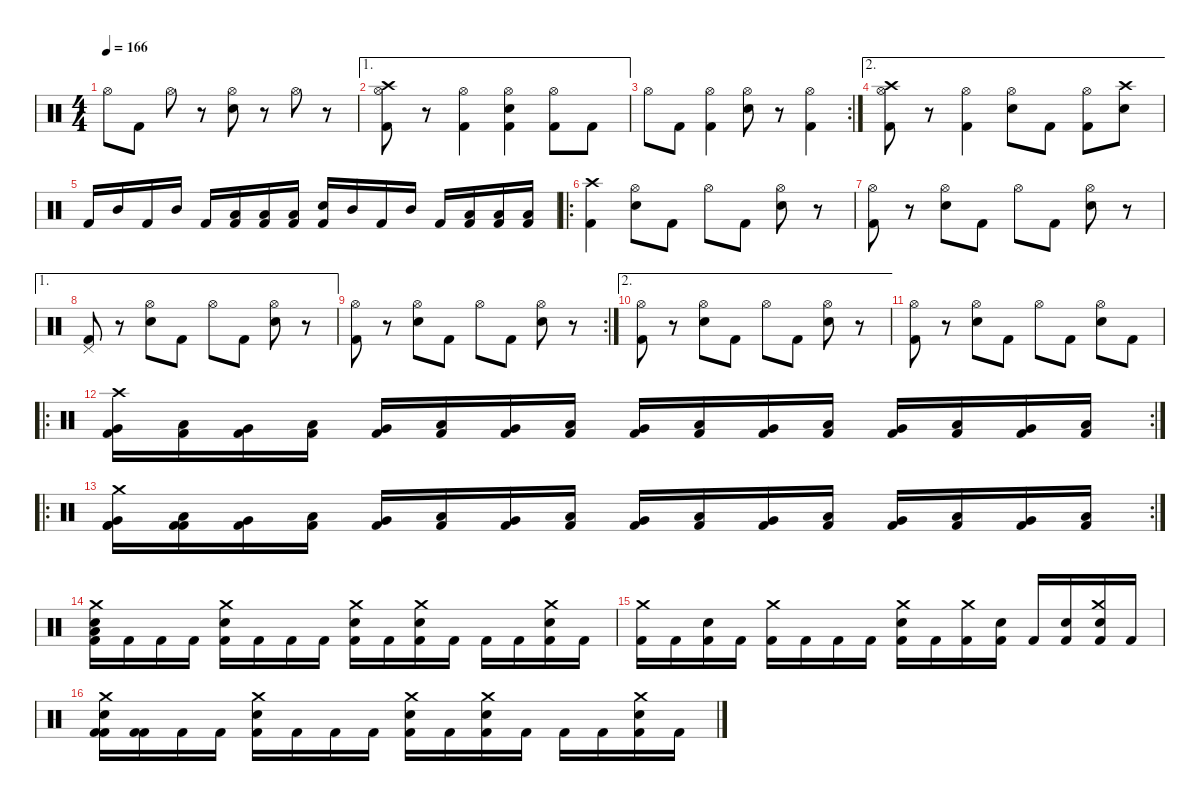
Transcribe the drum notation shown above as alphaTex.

\defaultSystemsLayout 4
\hideDynamics
\bracketExtendMode nobrackets
\singleTrackTrackNamePolicy hidden
\multiTrackTrackNamePolicy hidden
\firstSystemTrackNameMode fullname
\otherSystemsTrackNameOrientation horizontal
\track ("Drums" "drm.") {instrument percussion}
\staff {score}
\articulation defaults
\ts (4 4)
\tempo 166
\clef neutral
\ks c "Hi-Hat (open)".8{dy f beam Down} "Kick (hit) 2".8{beam Down} "Hi-Hat (open)".8{beam Down}
r.8{beam Down} ("Snare (hit) 2" "Hi-Hat (open)").8{beam Down} r.8{beam Down} "Hi-Hat (open)".8{beam Down} r.8{beam Down} |
\ae 1
("Hi-Hat (open)" "Kick (hit) 2" "Crash high (hit)").8{beam Down} r.8{beam Down} ("Hi-Hat (open)" "Kick (hit) 2").4{beam Down} ("Snare (hit) 2" "Hi-Hat (open)" "Kick (hit) 2").4{beam Down} ("Hi-Hat (open)" "Kick (hit) 2").8{beam Down} "Kick (hit) 2".8{beam Down} |
\rc 2 "Hi-Hat (open)".8{beam Down} "Kick (hit) 2".8{beam Down}
("Hi-Hat (open)" "Kick (hit) 2").4{beam Down} ("Snare (hit) 2" "Hi-Hat (open)").8{beam Down} r.8{beam Down} ("Hi-Hat (open)" "Kick (hit) 2").4{beam Down} |
\ae 2
("Hi-Hat (open)" "Kick (hit) 2" "Crash high (hit)").8{beam Down} r.8{beam Down} ("Hi-Hat (open)" "Kick (hit) 2").4{beam Down} ("Snare (hit) 2" "Hi-Hat (open)").8{beam Down} "Kick (hit) 2".8{beam Down} ("Hi-Hat (open)" "Kick (hit) 2").8{beam Down} ("Snare (hit) 2" "Crash high (hit)").8{beam Down} |
"Kick (hit) 2".16{beam Up} "Mid Tom (hit)".16{beam Up} "Kick (hit) 2".16{beam Up} "Mid Tom (hit)".16{beam Up} "Kick (hit) 2".16{beam Up} ("Kick (hit) 2" "Low Tom (hit)").16{beam Up} ("Kick (hit) 2" "Low Tom (hit)").16{beam Up} ("Kick (hit) 2" "Low Tom (hit)").16{beam Up} ("Snare (hit) 2" "Kick (hit) 2").16{beam Up} "Mid Tom (hit)".16{beam Up} "Kick (hit) 2".16{beam Up} "Mid Tom (hit)".16{beam Up} "Kick (hit) 2".16{beam Up} ("Kick (hit) 2" "Low Tom (hit)").16{beam Up} ("Kick (hit) 2" "Low Tom (hit)").16{beam Up} ("Kick (hit) 2" "Low Tom (hit)").16{beam Up} |
\ro
("Kick (hit) 2" "Crash high (hit)").4{beam Down} ("Snare (hit) 2" "Hi-Hat (open)").8{beam Down} "Kick (hit) 2".8{beam Down} "Hi-Hat (open)".8{beam Down} "Kick (hit) 2".8{beam Down} ("Snare (hit) 2" "Hi-Hat (open)").8{beam Down} r.8{beam Down} |
("Hi-Hat (open)" "Kick (hit) 2").8{beam Down} r.8{beam Down} ("Snare (hit) 2" "Hi-Hat (open)").8{beam Down} "Kick (hit) 2".8{beam Down} "Hi-Hat (open)".8{beam Down} "Kick (hit) 2".8{beam Down} ("Snare (hit) 2" "Hi-Hat (open)").8{beam Down} r.8{beam Down} |
\ae 1
("Pedal Hi-Hat (hit)" "Kick (hit) 2").8{beam Up} r.8{beam Up} ("Snare (hit) 2" "Hi-Hat (open)").8{beam Down} "Kick (hit) 2".8{beam Down} "Hi-Hat (open)".8{beam Down} "Kick (hit) 2".8{beam Down} ("Snare (hit) 2" "Hi-Hat (open)").8{beam Down} r.8{beam Down} |
\rc 2
("Hi-Hat (open)" "Kick (hit) 2").8{beam Down} r.8{beam Down} ("Snare (hit) 2" "Hi-Hat (open)").8{beam Down} "Kick (hit) 2".8{beam Down} "Hi-Hat (open)".8{beam Down} "Kick (hit) 2".8{beam Down} ("Snare (hit) 2" "Hi-Hat (open)").8{beam Down} r.8{beam Down} |
\ae 2
("Hi-Hat (open)" "Kick (hit) 2").8{beam Down} r.8{beam Down} ("Snare (hit) 2" "Hi-Hat (open)").8{beam Down} "Kick (hit) 2".8{beam Down} "Hi-Hat (open)".8{beam Down} "Kick (hit) 2".8{beam Down} ("Snare (hit) 2" "Hi-Hat (open)").8{beam Down} r.8{beam Down} |
("Hi-Hat (open)" "Kick (hit) 2").8{beam Down} r.8{beam Down} ("Snare (hit) 2" "Hi-Hat (open)").8{beam Down} "Kick (hit) 2".8{beam Down} "Hi-Hat (open)".8{beam Down} "Kick (hit) 2".8{beam Down} ("Snare (hit) 2" "Hi-Hat (open)").8{beam Down} "Kick (hit) 2".8{beam Down} |
\ro
\rc 2
("Crash high (hit)" "Very Low Tom (hit)" "Kick (hit) 2").16{beam Down} ("Low Tom (hit)" "Kick (hit) 2").16{beam Down} ("Very Low Tom (hit)" "Kick (hit) 2").16{beam Down} ("Low Tom (hit)" "Kick (hit) 2").16{beam Down} ("Very Low Tom (hit)" "Kick (hit) 2").16{beam Up} ("Low Floor Tom (hit)" "Kick (hit) 2").16{beam Up} ("Very Low Tom (hit)" "Kick (hit) 2").16{beam Up} ("Low Floor Tom (hit)" "Kick (hit) 2").16{beam Up} ("Very Low Tom (hit)" "Kick (hit) 2").16{beam Up} ("Low Tom (hit)" "Kick (hit) 2").16{beam Up} ("Very Low Tom (hit)" "Kick (hit) 2").16{beam Up} ("Low Tom (hit)" "Kick (hit) 2").16{beam Up} ("Very Low Tom (hit)" "Kick (hit) 2").16{beam Up} ("Low Floor Tom (hit)" "Kick (hit) 2").16{beam Up} ("Very Low Tom (hit)" "Kick (hit) 2").16{beam Up} ("Low Floor Tom (hit)" "Kick (hit) 2").16{beam Up} |
\ro
\rc 2
("Crash medium (hit)" "Kick (hit) 2" "Very Low Tom (hit)" "Kick (hit) 2").16{beam Down} ("Kick (hit) 2" "Low Tom (hit)" "Kick (hit) 2").16{beam Down} ("Kick (hit) 2" "Very Low Tom (hit)").16{beam Down} ("Kick (hit) 2" "Low Tom (hit)").16{beam Down} ("Kick (hit) 2" "Very Low Tom (hit)").16{beam Up} ("Kick (hit) 2" "Low Floor Tom (hit)").16{beam Up} ("Kick (hit) 2" "Very Low Tom (hit)").16{beam Up} ("Kick (hit) 2" "Low Floor Tom (hit)").16{beam Up} ("Kick (hit) 2" "Very Low Tom (hit)").16{beam Up} ("Kick (hit) 2" "Low Tom (hit)").16{beam Up} ("Kick (hit) 2" "Very Low Tom (hit)").16{beam Up} ("Kick (hit) 2" "Low Tom (hit)").16{beam Up} ("Kick (hit) 2" "Very Low Tom (hit)").16{beam Up} ("Kick (hit) 2" "Low Floor Tom (hit)").16{beam Up} ("Kick (hit) 2" "Very Low Tom (hit)").16{beam Up} ("Kick (hit) 2" "Low Floor Tom (hit)").16{beam Up} |
("Low Floor Tom (hit)" "Kick (hit) 2" "Snare (hit) 2" "Crash medium (hit)").16{beam Down} "Kick (hit) 2".16{beam Down} "Kick (hit) 2".16{beam Down} "Kick (hit) 2".16{beam Down} ("Kick (hit) 2" "Snare (hit) 2" "Crash medium (hit)").16{beam Down} "Kick (hit) 2".16{beam Down} "Kick (hit) 2".16{beam Down} "Kick (hit) 2".16{beam Down} ("Kick (hit) 2" "Snare (hit) 2" "Crash medium (hit)").16{beam Down} "Kick (hit) 2".16{beam Down} ("Kick (hit) 2" "Snare (hit) 2" "Crash medium (hit)").16{beam Down} "Kick (hit) 2".16{beam Down} "Kick (hit) 2".16{beam Down} "Kick (hit) 2".16{beam Down} ("Kick (hit) 2" "Snare (hit) 2" "Crash medium (hit)").16{beam Down} "Kick (hit) 2".16{beam Down} |
("Kick (hit) 2" "Crash medium (hit)").16{beam Down} "Kick (hit) 2".16{beam Down} ("Kick (hit) 2" "Snare (hit) 2").16{beam Down} "Kick (hit) 2".16{beam Down} ("Kick (hit) 2" "Crash medium (hit)").16{beam Down} "Kick (hit) 2".16{beam Down} "Kick (hit) 2".16{beam Down} "Kick (hit) 2".16{beam Down} ("Kick (hit) 2" "Snare (hit) 2" "Crash medium (hit)").16{beam Down} "Kick (hit) 2".16{beam Down} ("Kick (hit) 2" "Crash medium (hit)").16{beam Down} ("Kick (hit) 2" "Snare (hit) 2").16{beam Down} "Kick (hit) 2".16{beam Up} ("Kick (hit) 2" "Snare (hit) 2").16{beam Up} ("Kick (hit) 2" "Crash medium (hit)" "Snare (hit) 2").16{beam Up} "Kick (hit) 2".16{beam Up} |
("Crash medium (hit)" "Kick (hit) 2" "Kick (hit) 2" "Snare (hit) 2").16{beam Down} ("Kick (hit) 2" "Kick (hit) 2").16{beam Down} "Kick (hit) 2".16{beam Down} "Kick (hit) 2".16{beam Down} ("Kick (hit) 2" "Snare (hit) 2" "Crash medium (hit)").16{beam Down} "Kick (hit) 2".16{beam Down} "Kick (hit) 2".16{beam Down} "Kick (hit) 2".16{beam Down} ("Kick (hit) 2" "Snare (hit) 2" "Crash medium (hit)").16{beam Down} "Kick (hit) 2".16{beam Down} ("Kick (hit) 2" "Snare (hit) 2" "Crash medium (hit)").16{beam Down} "Kick (hit) 2".16{beam Down} "Kick (hit) 2".16{beam Down} "Kick (hit) 2".16{beam Down} ("Kick (hit) 2" "Snare (hit) 2" "Crash medium (hit)").16{beam Down} "Kick (hit) 2".16{beam Down}
